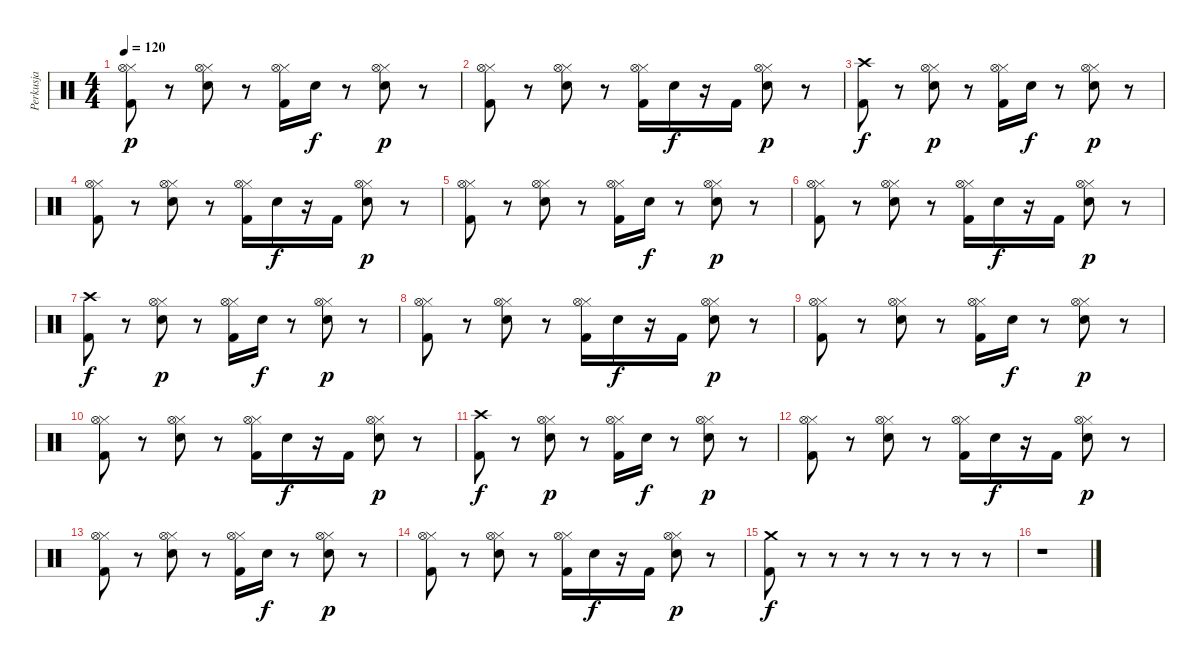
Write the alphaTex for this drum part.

\track ("Perkusja" "Perkusja") {instrument percussion}
\staff {score}
\articulation defaults
\ts (4 4)
\tempo 120
\clef neutral
\ks c
("Kick (hit) 2" "Hi-Hat (closed)" "Hi-Hat (open)").8{dy p} r.8 ("Electric Snare (hit)" "Hi-Hat (closed)" "Hi-Hat (open)").8 r.8 ("Kick (hit) 2" "Hi-Hat (closed)" "Hi-Hat (open)").16 "Electric Snare (hit)".16{dy f} r.8 ("Electric Snare (hit)" "Hi-Hat (closed)" "Hi-Hat (open)").8{dy p} r.8 |
("Kick (hit) 2" "Hi-Hat (closed)" "Hi-Hat (open)").8 r.8 ("Electric Snare (hit)" "Hi-Hat (closed)" "Hi-Hat (open)").8 r.8 ("Kick (hit) 2" "Hi-Hat (closed)" "Hi-Hat (open)").16 "Electric Snare (hit)".16{dy f} r.16 "Kick (hit) 2".16 ("Electric Snare (hit)" "Hi-Hat (closed)" "Hi-Hat (open)").8{dy p} r.8 |
("Kick (hit) 2" "Crash high (hit)").8{dy f} r.8 ("Electric Snare (hit)" "Hi-Hat (closed)" "Hi-Hat (open)").8{dy p} r.8 ("Kick (hit) 2" "Hi-Hat (closed)" "Hi-Hat (open)").16 "Electric Snare (hit)".16{dy f} r.8 ("Electric Snare (hit)" "Hi-Hat (closed)" "Hi-Hat (open)").8{dy p} r.8 |
("Kick (hit) 2" "Hi-Hat (closed)" "Hi-Hat (open)").8 r.8 ("Electric Snare (hit)" "Hi-Hat (closed)" "Hi-Hat (open)").8 r.8 ("Kick (hit) 2" "Hi-Hat (closed)" "Hi-Hat (open)").16 "Electric Snare (hit)".16{dy f} r.16 "Kick (hit) 2".16 ("Electric Snare (hit)" "Hi-Hat (closed)" "Hi-Hat (open)").8{dy p} r.8 |
("Kick (hit) 2" "Hi-Hat (closed)" "Hi-Hat (open)").8 r.8 ("Electric Snare (hit)" "Hi-Hat (closed)" "Hi-Hat (open)").8 r.8 ("Kick (hit) 2" "Hi-Hat (closed)" "Hi-Hat (open)").16 "Electric Snare (hit)".16{dy f} r.8 ("Electric Snare (hit)" "Hi-Hat (closed)" "Hi-Hat (open)").8{dy p} r.8 |
("Kick (hit) 2" "Hi-Hat (closed)" "Hi-Hat (open)").8 r.8 ("Electric Snare (hit)" "Hi-Hat (closed)" "Hi-Hat (open)").8 r.8 ("Kick (hit) 2" "Hi-Hat (closed)" "Hi-Hat (open)").16 "Electric Snare (hit)".16{dy f} r.16 "Kick (hit) 2".16 ("Electric Snare (hit)" "Hi-Hat (closed)" "Hi-Hat (open)").8{dy p} r.8 |
("Kick (hit) 2" "Crash high (hit)").8{dy f} r.8 ("Electric Snare (hit)" "Hi-Hat (closed)" "Hi-Hat (open)").8{dy p} r.8 ("Kick (hit) 2" "Hi-Hat (closed)" "Hi-Hat (open)").16 "Electric Snare (hit)".16{dy f} r.8 ("Electric Snare (hit)" "Hi-Hat (closed)" "Hi-Hat (open)").8{dy p} r.8 |
("Kick (hit) 2" "Hi-Hat (closed)" "Hi-Hat (open)").8 r.8 ("Electric Snare (hit)" "Hi-Hat (closed)" "Hi-Hat (open)").8 r.8 ("Kick (hit) 2" "Hi-Hat (closed)" "Hi-Hat (open)").16 "Electric Snare (hit)".16{dy f} r.16 "Kick (hit) 2".16 ("Electric Snare (hit)" "Hi-Hat (closed)" "Hi-Hat (open)").8{dy p} r.8 |
("Kick (hit) 2" "Hi-Hat (closed)" "Hi-Hat (open)").8 r.8 ("Electric Snare (hit)" "Hi-Hat (closed)" "Hi-Hat (open)").8 r.8 ("Kick (hit) 2" "Hi-Hat (closed)" "Hi-Hat (open)").16 "Electric Snare (hit)".16{dy f} r.8 ("Electric Snare (hit)" "Hi-Hat (closed)" "Hi-Hat (open)").8{dy p} r.8 |
("Kick (hit) 2" "Hi-Hat (closed)" "Hi-Hat (open)").8 r.8 ("Electric Snare (hit)" "Hi-Hat (closed)" "Hi-Hat (open)").8 r.8 ("Kick (hit) 2" "Hi-Hat (closed)" "Hi-Hat (open)").16 "Electric Snare (hit)".16{dy f} r.16 "Kick (hit) 2".16 ("Electric Snare (hit)" "Hi-Hat (closed)" "Hi-Hat (open)").8{dy p} r.8 |
("Kick (hit) 2" "Crash high (hit)").8{dy f} r.8 ("Electric Snare (hit)" "Hi-Hat (closed)" "Hi-Hat (open)").8{dy p} r.8 ("Kick (hit) 2" "Hi-Hat (closed)" "Hi-Hat (open)").16 "Electric Snare (hit)".16{dy f} r.8 ("Electric Snare (hit)" "Hi-Hat (closed)" "Hi-Hat (open)").8{dy p} r.8 |
("Kick (hit) 2" "Hi-Hat (closed)" "Hi-Hat (open)").8 r.8 ("Electric Snare (hit)" "Hi-Hat (closed)" "Hi-Hat (open)").8 r.8 ("Kick (hit) 2" "Hi-Hat (closed)" "Hi-Hat (open)").16 "Electric Snare (hit)".16{dy f} r.16 "Kick (hit) 2".16 ("Electric Snare (hit)" "Hi-Hat (closed)" "Hi-Hat (open)").8{dy p} r.8 |
("Kick (hit) 2" "Hi-Hat (closed)" "Hi-Hat (open)").8 r.8 ("Electric Snare (hit)" "Hi-Hat (closed)" "Hi-Hat (open)").8 r.8 ("Kick (hit) 2" "Hi-Hat (closed)" "Hi-Hat (open)").16 "Electric Snare (hit)".16{dy f} r.8 ("Electric Snare (hit)" "Hi-Hat (closed)" "Hi-Hat (open)").8{dy p} r.8 |
("Kick (hit) 2" "Hi-Hat (closed)" "Hi-Hat (open)").8 r.8 ("Electric Snare (hit)" "Hi-Hat (closed)" "Hi-Hat (open)").8 r.8 ("Kick (hit) 2" "Hi-Hat (closed)" "Hi-Hat (open)").16 "Electric Snare (hit)".16{dy f} r.16 "Kick (hit) 2".16 ("Electric Snare (hit)" "Hi-Hat (closed)" "Hi-Hat (open)").8{dy p} r.8 |
("Kick (hit) 2" "Crash medium (hit)").8{dy f} r.8 r.8 r.8 r.8 r.8 r.8 r.8 |
r.1
